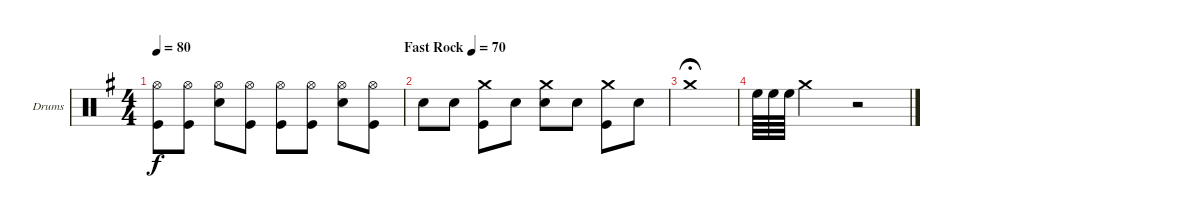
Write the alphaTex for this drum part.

\defaultSystemsLayout 4
\bracketExtendMode groupsimilarinstruments
\firstSystemTrackNameOrientation horizontal
\otherSystemsTrackNameOrientation horizontal
\track ("Drumkit" "Drums") {instrument percussion}
\staff {score}
\articulation defaults
\ts (4 4)
\tempo 80
\tempo (70 "Fast Rock" 1)
\clef neutral
\ks g
("Hi-Hat (open)" "Kick (hit)").8{dy f} ("Hi-Hat (open)" "Kick (hit)").8 ("Hi-Hat (open)" "Snare (hit) 2").8 ("Hi-Hat (open)" "Kick (hit)").8 ("Hi-Hat (open)" "Kick (hit)").8 ("Hi-Hat (open)" "Kick (hit)").8 ("Hi-Hat (open)" "Snare (hit) 2").8 ("Hi-Hat (open)" "Kick (hit)").8 |
"Snare (hit) 2".8 "Snare (hit) 2".8 ("Crash medium (hit)" "Kick (hit)").8 "Snare (hit) 2".8 ("Crash medium (hit)" "Snare (hit) 2").8 "Snare (hit) 2".8 ("Crash medium (hit)" "Kick (hit)").8 "Snare (hit) 2".8 |
"Crash medium (hit)".1{fermata (medium 0.5)} |
"High Floor Tom (hit)".64 "High Floor Tom (hit)".64 "High Floor Tom (hit)".64 "Crash medium (hit)".2 r.2
